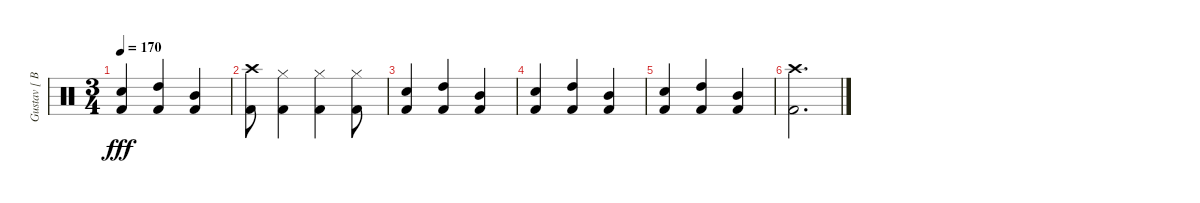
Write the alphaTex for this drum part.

\track ("Gustav [ Batterie ]" "Gustav [ B") {instrument percussion}
\staff {score}
\articulation defaults
\ts (3 4)
\tempo 170
\clef neutral
\ks c
("Snare (hit) 2" "Kick (hit) 2").4{dy fff} ("High Tom (hit)" "Kick (hit) 2").4 ("Mid Tom (hit)" "Kick (hit) 2").4 |
("Crash high (hit)" "Kick (hit) 2").8 ("Hi-Hat (closed)" "Kick (hit) 2").4 ("Hi-Hat (closed)" "Kick (hit) 2").4 ("Hi-Hat (closed)" "Kick (hit) 2").8 |
("Snare (hit) 2" "Kick (hit) 2").4 ("High Tom (hit)" "Kick (hit) 2").4 ("Mid Tom (hit)" "Kick (hit) 2").4 |
("Snare (hit) 2" "Kick (hit) 2").4 ("High Tom (hit)" "Kick (hit) 2").4 ("Mid Tom (hit)" "Kick (hit) 2").4 |
("Snare (hit) 2" "Kick (hit) 2").4 ("High Tom (hit)" "Kick (hit) 2").4 ("Mid Tom (hit)" "Kick (hit) 2").4 |
("Crash high (hit)" "Kick (hit) 2").2{d}
